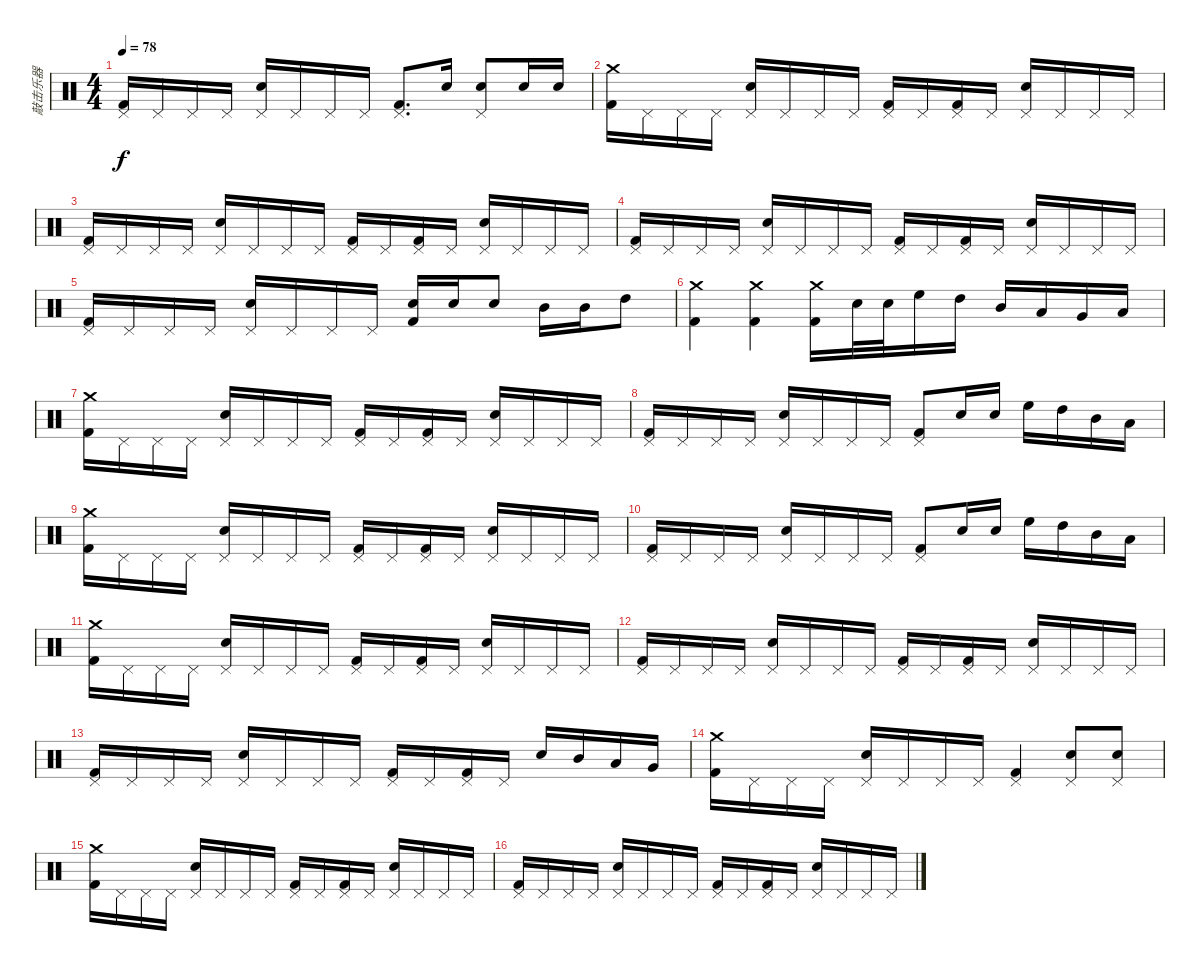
\track ("敲击乐器" "敲击乐器") {instrument percussion}
\staff {score}
\articulation defaults
\ts (4 4)
\tempo 78
\clef neutral
\ks c
("Pedal Hi-Hat (hit)" "Kick (hit) 2").16{dy f} "Pedal Hi-Hat (hit)".16 "Pedal Hi-Hat (hit)".16 "Pedal Hi-Hat (hit)".16 ("Pedal Hi-Hat (hit)" "Snare (hit) 2").16 "Pedal Hi-Hat (hit)".16 "Pedal Hi-Hat (hit)".16 "Pedal Hi-Hat (hit)".16 ("Pedal Hi-Hat (hit)" "Kick (hit) 2").8{d} "Snare (hit) 2".16 ("Pedal Hi-Hat (hit)" "Snare (hit) 2").8 "Snare (hit) 2".16 "Snare (hit) 2".16 |
("Crash medium (hit)" "Kick (hit) 2").16 "Pedal Hi-Hat (hit)".16 "Pedal Hi-Hat (hit)".16 "Pedal Hi-Hat (hit)".16 ("Pedal Hi-Hat (hit)" "Snare (hit) 2").16 "Pedal Hi-Hat (hit)".16 "Pedal Hi-Hat (hit)".16 "Pedal Hi-Hat (hit)".16 ("Pedal Hi-Hat (hit)" "Kick (hit) 2").16 "Pedal Hi-Hat (hit)".16 ("Pedal Hi-Hat (hit)" "Kick (hit) 2").16 "Pedal Hi-Hat (hit)".16 ("Pedal Hi-Hat (hit)" "Snare (hit) 2").16 "Pedal Hi-Hat (hit)".16 "Pedal Hi-Hat (hit)".16 "Pedal Hi-Hat (hit)".16 |
("Pedal Hi-Hat (hit)" "Kick (hit) 2").16 "Pedal Hi-Hat (hit)".16 "Pedal Hi-Hat (hit)".16 "Pedal Hi-Hat (hit)".16 ("Pedal Hi-Hat (hit)" "Snare (hit) 2").16 "Pedal Hi-Hat (hit)".16 "Pedal Hi-Hat (hit)".16 "Pedal Hi-Hat (hit)".16 ("Pedal Hi-Hat (hit)" "Kick (hit) 2").16 "Pedal Hi-Hat (hit)".16 ("Pedal Hi-Hat (hit)" "Kick (hit) 2").16 "Pedal Hi-Hat (hit)".16 ("Pedal Hi-Hat (hit)" "Snare (hit) 2").16 "Pedal Hi-Hat (hit)".16 "Pedal Hi-Hat (hit)".16 "Pedal Hi-Hat (hit)".16 |
("Pedal Hi-Hat (hit)" "Kick (hit) 2").16 "Pedal Hi-Hat (hit)".16 "Pedal Hi-Hat (hit)".16 "Pedal Hi-Hat (hit)".16 ("Pedal Hi-Hat (hit)" "Snare (hit) 2").16 "Pedal Hi-Hat (hit)".16 "Pedal Hi-Hat (hit)".16 "Pedal Hi-Hat (hit)".16 ("Pedal Hi-Hat (hit)" "Kick (hit) 2").16 "Pedal Hi-Hat (hit)".16 ("Pedal Hi-Hat (hit)" "Kick (hit) 2").16 "Pedal Hi-Hat (hit)".16 ("Pedal Hi-Hat (hit)" "Snare (hit) 2").16 "Pedal Hi-Hat (hit)".16 "Pedal Hi-Hat (hit)".16 "Pedal Hi-Hat (hit)".16 |
("Pedal Hi-Hat (hit)" "Kick (hit) 2").16 "Pedal Hi-Hat (hit)".16 "Pedal Hi-Hat (hit)".16 "Pedal Hi-Hat (hit)".16 ("Pedal Hi-Hat (hit)" "Snare (hit) 2").16 "Pedal Hi-Hat (hit)".16 "Pedal Hi-Hat (hit)".16 "Pedal Hi-Hat (hit)".16 ("Snare (hit) 2" "Kick (hit) 2").16 "Snare (hit) 2".16 "Snare (hit) 2".8 "Mid Tom (hit)".16 "Mid Tom (hit)".16 "High Tom (hit)".8 |
("Crash medium (hit)" "Kick (hit) 2").4 ("Crash medium (hit)" "Kick (hit) 2").4 ("Crash medium (hit)" "Kick (hit) 2").16 "Snare (hit) 2".32 "Snare (hit) 2".32 "High Floor Tom (hit)".16 "High Tom (hit)".16 "Mid Tom (hit)".16 "Low Tom (hit)".16 "Very Low Tom (hit)".16 "Low Floor Tom (hit)".16 |
("Crash medium (hit)" "Kick (hit) 2").16 "Pedal Hi-Hat (hit)".16 "Pedal Hi-Hat (hit)".16 "Pedal Hi-Hat (hit)".16 ("Pedal Hi-Hat (hit)" "Snare (hit) 2").16 "Pedal Hi-Hat (hit)".16 "Pedal Hi-Hat (hit)".16 "Pedal Hi-Hat (hit)".16 ("Pedal Hi-Hat (hit)" "Kick (hit) 2").16 "Pedal Hi-Hat (hit)".16 ("Pedal Hi-Hat (hit)" "Kick (hit) 2").16 "Pedal Hi-Hat (hit)".16 ("Pedal Hi-Hat (hit)" "Snare (hit) 2").16 "Pedal Hi-Hat (hit)".16 "Pedal Hi-Hat (hit)".16 "Pedal Hi-Hat (hit)".16 |
("Pedal Hi-Hat (hit)" "Kick (hit) 2").16 "Pedal Hi-Hat (hit)".16 "Pedal Hi-Hat (hit)".16 "Pedal Hi-Hat (hit)".16 ("Pedal Hi-Hat (hit)" "Snare (hit) 2").16 "Pedal Hi-Hat (hit)".16 "Pedal Hi-Hat (hit)".16 "Pedal Hi-Hat (hit)".16 ("Pedal Hi-Hat (hit)" "Kick (hit) 2").8 "Snare (hit) 2".16 "Snare (hit) 2".16 "High Floor Tom (hit)".16 "High Tom (hit)".16 "Mid Tom (hit)".16 "Low Tom (hit)".16 |
("Crash medium (hit)" "Kick (hit) 2").16 "Pedal Hi-Hat (hit)".16 "Pedal Hi-Hat (hit)".16 "Pedal Hi-Hat (hit)".16 ("Pedal Hi-Hat (hit)" "Snare (hit) 2").16 "Pedal Hi-Hat (hit)".16 "Pedal Hi-Hat (hit)".16 "Pedal Hi-Hat (hit)".16 ("Pedal Hi-Hat (hit)" "Kick (hit) 2").16 "Pedal Hi-Hat (hit)".16 ("Pedal Hi-Hat (hit)" "Kick (hit) 2").16 "Pedal Hi-Hat (hit)".16 ("Pedal Hi-Hat (hit)" "Snare (hit) 2").16 "Pedal Hi-Hat (hit)".16 "Pedal Hi-Hat (hit)".16 "Pedal Hi-Hat (hit)".16 |
("Pedal Hi-Hat (hit)" "Kick (hit) 2").16 "Pedal Hi-Hat (hit)".16 "Pedal Hi-Hat (hit)".16 "Pedal Hi-Hat (hit)".16 ("Pedal Hi-Hat (hit)" "Snare (hit) 2").16 "Pedal Hi-Hat (hit)".16 "Pedal Hi-Hat (hit)".16 "Pedal Hi-Hat (hit)".16 ("Pedal Hi-Hat (hit)" "Kick (hit) 2").8 "Snare (hit) 2".16 "Snare (hit) 2".16 "High Floor Tom (hit)".16 "High Tom (hit)".16 "Mid Tom (hit)".16 "Low Tom (hit)".16 |
("Crash medium (hit)" "Kick (hit) 2").16 "Pedal Hi-Hat (hit)".16 "Pedal Hi-Hat (hit)".16 "Pedal Hi-Hat (hit)".16 ("Pedal Hi-Hat (hit)" "Snare (hit) 2").16 "Pedal Hi-Hat (hit)".16 "Pedal Hi-Hat (hit)".16 "Pedal Hi-Hat (hit)".16 ("Pedal Hi-Hat (hit)" "Kick (hit) 2").16 "Pedal Hi-Hat (hit)".16 ("Pedal Hi-Hat (hit)" "Kick (hit) 2").16 "Pedal Hi-Hat (hit)".16 ("Pedal Hi-Hat (hit)" "Snare (hit) 2").16 "Pedal Hi-Hat (hit)".16 "Pedal Hi-Hat (hit)".16 "Pedal Hi-Hat (hit)".16 |
("Pedal Hi-Hat (hit)" "Kick (hit) 2").16 "Pedal Hi-Hat (hit)".16 "Pedal Hi-Hat (hit)".16 "Pedal Hi-Hat (hit)".16 ("Pedal Hi-Hat (hit)" "Snare (hit) 2").16 "Pedal Hi-Hat (hit)".16 "Pedal Hi-Hat (hit)".16 "Pedal Hi-Hat (hit)".16 ("Pedal Hi-Hat (hit)" "Kick (hit) 2").16 "Pedal Hi-Hat (hit)".16 ("Pedal Hi-Hat (hit)" "Kick (hit) 2").16 "Pedal Hi-Hat (hit)".16 ("Pedal Hi-Hat (hit)" "Snare (hit) 2").16 "Pedal Hi-Hat (hit)".16 "Pedal Hi-Hat (hit)".16 "Pedal Hi-Hat (hit)".16 |
("Pedal Hi-Hat (hit)" "Kick (hit) 2").16 "Pedal Hi-Hat (hit)".16 "Pedal Hi-Hat (hit)".16 "Pedal Hi-Hat (hit)".16 ("Pedal Hi-Hat (hit)" "Snare (hit) 2").16 "Pedal Hi-Hat (hit)".16 "Pedal Hi-Hat (hit)".16 "Pedal Hi-Hat (hit)".16 ("Pedal Hi-Hat (hit)" "Kick (hit) 2").16 "Pedal Hi-Hat (hit)".16 ("Pedal Hi-Hat (hit)" "Kick (hit) 2").16 "Pedal Hi-Hat (hit)".16 "Snare (hit) 2".16 "Mid Tom (hit)".16 "Low Tom (hit)".16 "Very Low Tom (hit)".16 |
("Crash medium (hit)" "Kick (hit) 2").16 "Pedal Hi-Hat (hit)".16 "Pedal Hi-Hat (hit)".16 "Pedal Hi-Hat (hit)".16 ("Pedal Hi-Hat (hit)" "Snare (hit) 2").16 "Pedal Hi-Hat (hit)".16 "Pedal Hi-Hat (hit)".16 "Pedal Hi-Hat (hit)".16 ("Pedal Hi-Hat (hit)" "Kick (hit) 2").4 ("Pedal Hi-Hat (hit)" "Snare (hit) 2").8 ("Pedal Hi-Hat (hit)" "Snare (hit) 2").8 |
("Crash medium (hit)" "Kick (hit) 2").16 "Pedal Hi-Hat (hit)".16 "Pedal Hi-Hat (hit)".16 "Pedal Hi-Hat (hit)".16 ("Pedal Hi-Hat (hit)" "Snare (hit) 2").16 "Pedal Hi-Hat (hit)".16 "Pedal Hi-Hat (hit)".16 "Pedal Hi-Hat (hit)".16 ("Pedal Hi-Hat (hit)" "Kick (hit) 2").16 "Pedal Hi-Hat (hit)".16 ("Pedal Hi-Hat (hit)" "Kick (hit) 2").16 "Pedal Hi-Hat (hit)".16 ("Pedal Hi-Hat (hit)" "Snare (hit) 2").16 "Pedal Hi-Hat (hit)".16 "Pedal Hi-Hat (hit)".16 "Pedal Hi-Hat (hit)".16 |
("Pedal Hi-Hat (hit)" "Kick (hit) 2").16 "Pedal Hi-Hat (hit)".16 "Pedal Hi-Hat (hit)".16 "Pedal Hi-Hat (hit)".16 ("Pedal Hi-Hat (hit)" "Snare (hit) 2").16 "Pedal Hi-Hat (hit)".16 "Pedal Hi-Hat (hit)".16 "Pedal Hi-Hat (hit)".16 ("Pedal Hi-Hat (hit)" "Kick (hit) 2").16 "Pedal Hi-Hat (hit)".16 ("Pedal Hi-Hat (hit)" "Kick (hit) 2").16 "Pedal Hi-Hat (hit)".16 ("Pedal Hi-Hat (hit)" "Snare (hit) 2").16 "Pedal Hi-Hat (hit)".16 "Pedal Hi-Hat (hit)".16 "Pedal Hi-Hat (hit)".16
